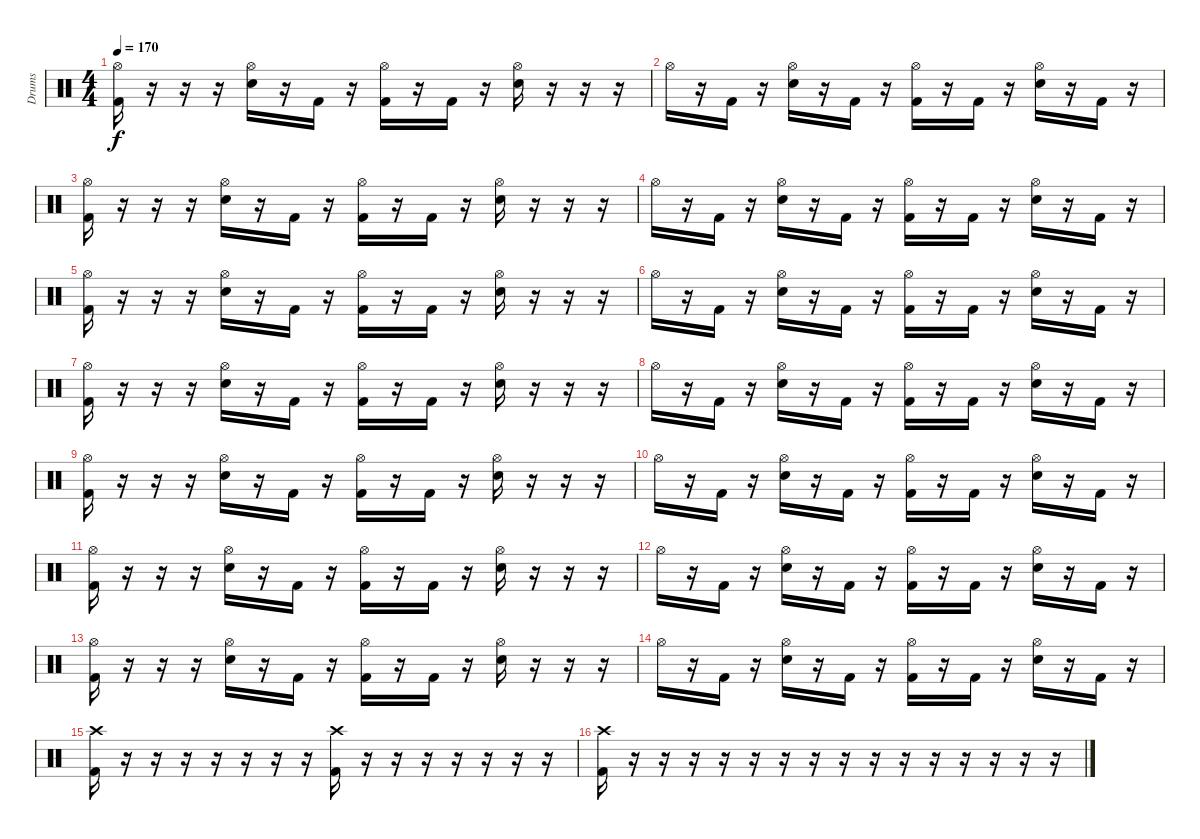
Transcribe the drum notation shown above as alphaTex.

\track ("Drums" "Drums") {instrument percussion}
\staff {score}
\articulation defaults
\ts (4 4)
\tempo 170
\clef neutral
\ks c
("Hi-Hat (open)" "Kick (hit) 2").16{dy f} r.16 r.16 r.16 ("Hi-Hat (open)" "Snare (hit) 2").16 r.16 "Kick (hit) 2".16 r.16 ("Hi-Hat (open)" "Kick (hit) 2").16 r.16 "Kick (hit) 2".16 r.16 ("Hi-Hat (open)" "Snare (hit) 2").16 r.16 r.16 r.16 |
"Hi-Hat (open)".16 r.16 "Kick (hit) 2".16 r.16 ("Hi-Hat (open)" "Snare (hit) 2").16 r.16 "Kick (hit) 2".16 r.16 ("Hi-Hat (open)" "Kick (hit) 2").16 r.16 "Kick (hit) 2".16 r.16 ("Hi-Hat (open)" "Snare (hit) 2").16 r.16 "Kick (hit) 2".16 r.16 |
("Hi-Hat (open)" "Kick (hit) 2").16 r.16 r.16 r.16 ("Hi-Hat (open)" "Snare (hit) 2").16 r.16 "Kick (hit) 2".16 r.16 ("Hi-Hat (open)" "Kick (hit) 2").16 r.16 "Kick (hit) 2".16 r.16 ("Hi-Hat (open)" "Snare (hit) 2").16 r.16 r.16 r.16 |
"Hi-Hat (open)".16 r.16 "Kick (hit) 2".16 r.16 ("Hi-Hat (open)" "Snare (hit) 2").16 r.16 "Kick (hit) 2".16 r.16 ("Hi-Hat (open)" "Kick (hit) 2").16 r.16 "Kick (hit) 2".16 r.16 ("Hi-Hat (open)" "Snare (hit) 2").16 r.16 "Kick (hit) 2".16 r.16 |
("Hi-Hat (open)" "Kick (hit) 2").16 r.16 r.16 r.16 ("Hi-Hat (open)" "Snare (hit) 2").16 r.16 "Kick (hit) 2".16 r.16 ("Hi-Hat (open)" "Kick (hit) 2").16 r.16 "Kick (hit) 2".16 r.16 ("Hi-Hat (open)" "Snare (hit) 2").16 r.16 r.16 r.16 |
"Hi-Hat (open)".16 r.16 "Kick (hit) 2".16 r.16 ("Hi-Hat (open)" "Snare (hit) 2").16 r.16 "Kick (hit) 2".16 r.16 ("Hi-Hat (open)" "Kick (hit) 2").16 r.16 "Kick (hit) 2".16 r.16 ("Hi-Hat (open)" "Snare (hit) 2").16 r.16 "Kick (hit) 2".16 r.16 |
("Hi-Hat (open)" "Kick (hit) 2").16 r.16 r.16 r.16 ("Hi-Hat (open)" "Snare (hit) 2").16 r.16 "Kick (hit) 2".16 r.16 ("Hi-Hat (open)" "Kick (hit) 2").16 r.16 "Kick (hit) 2".16 r.16 ("Hi-Hat (open)" "Snare (hit) 2").16 r.16 r.16 r.16 |
"Hi-Hat (open)".16 r.16 "Kick (hit) 2".16 r.16 ("Hi-Hat (open)" "Snare (hit) 2").16 r.16 "Kick (hit) 2".16 r.16 ("Hi-Hat (open)" "Kick (hit) 2").16 r.16 "Kick (hit) 2".16 r.16 ("Hi-Hat (open)" "Snare (hit) 2").16 r.16 "Kick (hit) 2".16 r.16 |
("Hi-Hat (open)" "Kick (hit) 2").16 r.16 r.16 r.16 ("Hi-Hat (open)" "Snare (hit) 2").16 r.16 "Kick (hit) 2".16 r.16 ("Hi-Hat (open)" "Kick (hit) 2").16 r.16 "Kick (hit) 2".16 r.16 ("Hi-Hat (open)" "Snare (hit) 2").16 r.16 r.16 r.16 |
"Hi-Hat (open)".16 r.16 "Kick (hit) 2".16 r.16 ("Hi-Hat (open)" "Snare (hit) 2").16 r.16 "Kick (hit) 2".16 r.16 ("Hi-Hat (open)" "Kick (hit) 2").16 r.16 "Kick (hit) 2".16 r.16 ("Hi-Hat (open)" "Snare (hit) 2").16 r.16 "Kick (hit) 2".16 r.16 |
("Hi-Hat (open)" "Kick (hit) 2").16 r.16 r.16 r.16 ("Hi-Hat (open)" "Snare (hit) 2").16 r.16 "Kick (hit) 2".16 r.16 ("Hi-Hat (open)" "Kick (hit) 2").16 r.16 "Kick (hit) 2".16 r.16 ("Hi-Hat (open)" "Snare (hit) 2").16 r.16 r.16 r.16 |
"Hi-Hat (open)".16 r.16 "Kick (hit) 2".16 r.16 ("Hi-Hat (open)" "Snare (hit) 2").16 r.16 "Kick (hit) 2".16 r.16 ("Hi-Hat (open)" "Kick (hit) 2").16 r.16 "Kick (hit) 2".16 r.16 ("Hi-Hat (open)" "Snare (hit) 2").16 r.16 "Kick (hit) 2".16 r.16 |
("Hi-Hat (open)" "Kick (hit) 2").16 r.16 r.16 r.16 ("Hi-Hat (open)" "Snare (hit) 2").16 r.16 "Kick (hit) 2".16 r.16 ("Hi-Hat (open)" "Kick (hit) 2").16 r.16 "Kick (hit) 2".16 r.16 ("Hi-Hat (open)" "Snare (hit) 2").16 r.16 r.16 r.16 |
"Hi-Hat (open)".16 r.16 "Kick (hit) 2".16 r.16 ("Hi-Hat (open)" "Snare (hit) 2").16 r.16 "Kick (hit) 2".16 r.16 ("Hi-Hat (open)" "Kick (hit) 2").16 r.16 "Kick (hit) 2".16 r.16 ("Hi-Hat (open)" "Snare (hit) 2").16 r.16 "Kick (hit) 2".16 r.16 |
("Crash high (hit)" "Kick (hit) 2").16 r.16 r.16 r.16 r.16 r.16 r.16 r.16 ("Crash high (hit)" "Kick (hit) 2").16 r.16 r.16 r.16 r.16 r.16 r.16 r.16 |
("Crash high (hit)" "Kick (hit) 2").16 r.16 r.16 r.16 r.16 r.16 r.16 r.16 r.16 r.16 r.16 r.16 r.16 r.16 r.16 r.16
